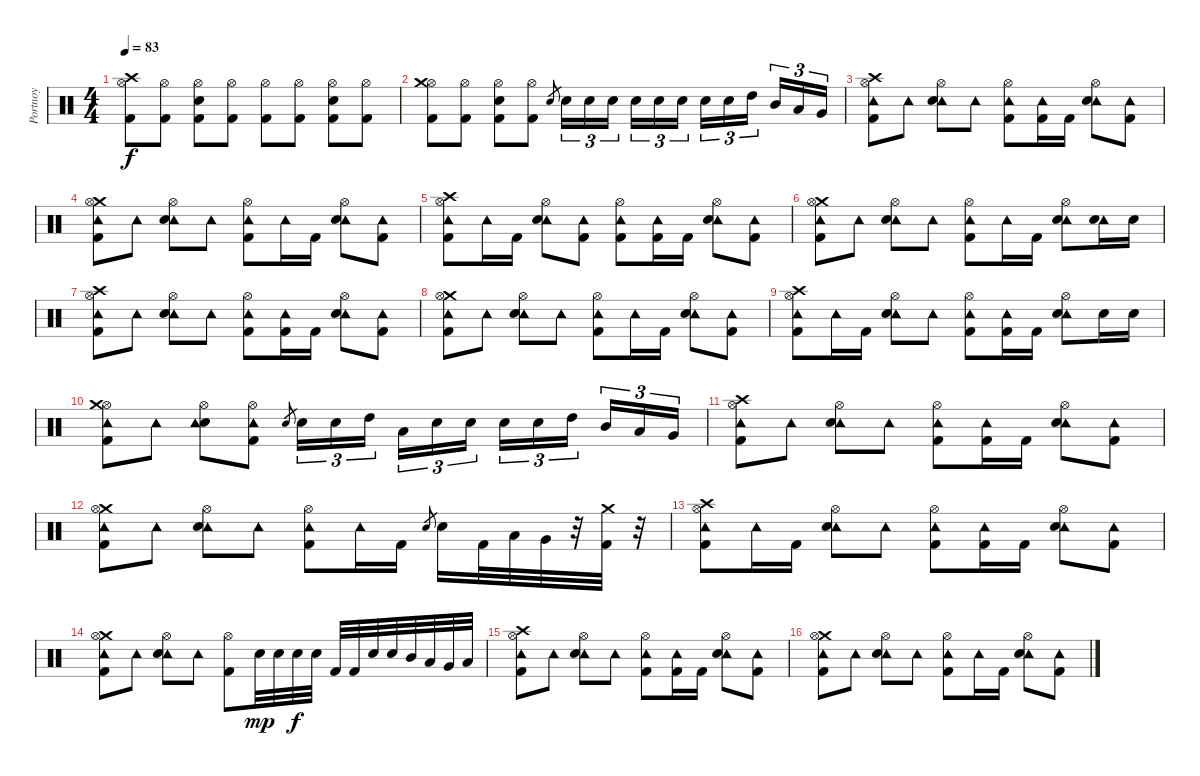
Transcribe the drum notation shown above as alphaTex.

\track ("Portnoy" "Portnoy") {instrument percussion}
\staff {score}
\articulation defaults
\ts (4 4)
\tempo 83
\clef neutral
\ks c
("Hi-Hat (open)" "Crash high (hit)" "Kick (hit) 2").8{dy f} ("Hi-Hat (open)" "Kick (hit) 2").8 ("Hi-Hat (open)" "Electric Snare (hit)" "Kick (hit) 2").8 ("Hi-Hat (open)" "Kick (hit) 2").8 ("Hi-Hat (open)" "Kick (hit) 2").8 ("Hi-Hat (open)" "Kick (hit) 2").8 ("Hi-Hat (open)" "Electric Snare (hit)" "Kick (hit) 2").8 ("Hi-Hat (open)" "Kick (hit) 2").8 |
("Hi-Hat (open)" "Crash medium (hit)" "Kick (hit) 2").8 ("Hi-Hat (open)" "Kick (hit) 2").8 ("Hi-Hat (open)" "Electric Snare (hit)" "Kick (hit) 2").8 ("Hi-Hat (open)" "Kick (hit) 2").8 "Electric Snare (hit)".8{gr} "Electric Snare (hit)".16{tu (3 2)} "Electric Snare (hit)".16{tu (3 2)} "Electric Snare (hit)".16{tu (3 2)} "Electric Snare (hit)".16{tu (3 2)} "Electric Snare (hit)".16{tu (3 2)} "Electric Snare (hit)".16{tu (3 2)} "Electric Snare (hit)".16{tu (3 2)} "Electric Snare (hit)".16{tu (3 2)} "High Tom (hit)".16{tu (3 2)} "Mid Tom (hit)".16{tu (3 2)} "Low Tom (hit)".16{tu (3 2)} "Very Low Tom (hit)".16{tu (3 2)} |
("Crash high (hit)" "Hi-Hat (open)" "Tambourine (hit)" "Kick (hit) 2").8 "Tambourine (hit)".8 ("Hi-Hat (open)" "Tambourine (hit)" "Electric Snare (hit)").8 "Tambourine (hit)".8 ("Hi-Hat (open)" "Tambourine (hit)" "Kick (hit) 2").8 ("Tambourine (hit)" "Kick (hit) 2").16 "Kick (hit) 2".16 ("Hi-Hat (open)" "Tambourine (hit)" "Electric Snare (hit)").8 ("Tambourine (hit)" "Kick (hit) 2").8 |
("Crash medium (hit)" "Hi-Hat (open)" "Tambourine (hit)" "Kick (hit) 2").8 "Tambourine (hit)".8 ("Hi-Hat (open)" "Tambourine (hit)" "Electric Snare (hit)").8 "Tambourine (hit)".8 ("Hi-Hat (open)" "Tambourine (hit)" "Kick (hit) 2").8 "Tambourine (hit)".16 "Kick (hit) 2".16 ("Hi-Hat (open)" "Tambourine (hit)" "Electric Snare (hit)").8 ("Tambourine (hit)" "Kick (hit) 2").8 |
("Crash high (hit)" "Hi-Hat (open)" "Tambourine (hit)" "Kick (hit) 2").8 "Tambourine (hit)".16 "Kick (hit) 2".16 ("Hi-Hat (open)" "Tambourine (hit)" "Electric Snare (hit)").8 ("Tambourine (hit)" "Kick (hit) 2").8 ("Hi-Hat (open)" "Tambourine (hit)" "Kick (hit) 2").8 ("Tambourine (hit)" "Kick (hit) 2").16 "Kick (hit) 2".16 ("Hi-Hat (open)" "Tambourine (hit)" "Electric Snare (hit)").8 ("Tambourine (hit)" "Kick (hit) 2").8 |
("Crash medium (hit)" "Hi-Hat (open)" "Tambourine (hit)" "Kick (hit) 2").8 "Tambourine (hit)".8 ("Hi-Hat (open)" "Tambourine (hit)" "Electric Snare (hit)").8 "Tambourine (hit)".8 ("Hi-Hat (open)" "Tambourine (hit)" "Kick (hit) 2").8 "Tambourine (hit)".16 "Kick (hit) 2".16 ("Hi-Hat (open)" "Tambourine (hit)" "Electric Snare (hit)").8 ("Tambourine (hit)" "Electric Snare (hit)").16 "Electric Snare (hit)".16 |
("Crash high (hit)" "Hi-Hat (open)" "Tambourine (hit)" "Kick (hit) 2").8 "Tambourine (hit)".8 ("Hi-Hat (open)" "Tambourine (hit)" "Electric Snare (hit)").8 "Tambourine (hit)".8 ("Hi-Hat (open)" "Tambourine (hit)" "Kick (hit) 2").8 ("Tambourine (hit)" "Kick (hit) 2").16 "Kick (hit) 2".16 ("Hi-Hat (open)" "Tambourine (hit)" "Electric Snare (hit)").8 ("Tambourine (hit)" "Kick (hit) 2").8 |
("Crash medium (hit)" "Hi-Hat (open)" "Tambourine (hit)" "Kick (hit) 2").8 "Tambourine (hit)".8 ("Hi-Hat (open)" "Tambourine (hit)" "Electric Snare (hit)").8 "Tambourine (hit)".8 ("Hi-Hat (open)" "Tambourine (hit)" "Kick (hit) 2").8 "Tambourine (hit)".16 "Kick (hit) 2".16 ("Hi-Hat (open)" "Tambourine (hit)" "Electric Snare (hit)").8 ("Tambourine (hit)" "Kick (hit) 2").8 |
("Crash high (hit)" "Hi-Hat (open)" "Tambourine (hit)" "Kick (hit) 2").8 "Tambourine (hit)".16 "Kick (hit) 2".16 ("Hi-Hat (open)" "Tambourine (hit)" "Electric Snare (hit)").8 "Tambourine (hit)".8 ("Hi-Hat (open)" "Tambourine (hit)" "Kick (hit) 2").8 ("Tambourine (hit)" "Kick (hit) 2").16 "Kick (hit) 2".16 ("Hi-Hat (open)" "Tambourine (hit)" "Electric Snare (hit)").8 "Electric Snare (hit)".16 "Electric Snare (hit)".16 |
("Hi-Hat (open)" "Crash medium (hit)" "Tambourine (hit)" "Kick (hit) 2").8 "Tambourine (hit)".8 ("Hi-Hat (open)" "Electric Snare (hit)" "Tambourine (hit)").8 ("Hi-Hat (open)" "Tambourine (hit)" "Kick (hit) 2").8 "Electric Snare (hit)".8{gr} "Electric Snare (hit)".16{tu (3 2)} "Electric Snare (hit)".16{tu (3 2)} "High Tom (hit)".16{tu (3 2)} "Low Tom (hit)".16{tu (3 2)} "Electric Snare (hit)".16{tu (3 2)} "Electric Snare (hit)".16{tu (3 2)} "Electric Snare (hit)".16{tu (3 2)} "Electric Snare (hit)".16{tu (3 2)} "High Tom (hit)".16{tu (3 2)} "Mid Tom (hit)".16{tu (3 2)} "Low Tom (hit)".16{tu (3 2)} "Very Low Tom (hit)".16{tu (3 2)} |
("Crash high (hit)" "Hi-Hat (open)" "Tambourine (hit)" "Kick (hit) 2").8 "Tambourine (hit)".8 ("Hi-Hat (open)" "Tambourine (hit)" "Electric Snare (hit)").8 "Tambourine (hit)".8 ("Hi-Hat (open)" "Tambourine (hit)" "Kick (hit) 2").8 ("Tambourine (hit)" "Kick (hit) 2").16 "Kick (hit) 2".16 ("Hi-Hat (open)" "Tambourine (hit)" "Electric Snare (hit)").8 ("Tambourine (hit)" "Kick (hit) 2").8 |
("Crash medium (hit)" "Hi-Hat (open)" "Tambourine (hit)" "Kick (hit) 2").8 "Tambourine (hit)".8 ("Hi-Hat (open)" "Tambourine (hit)" "Electric Snare (hit)").8 "Tambourine (hit)".8 ("Hi-Hat (open)" "Tambourine (hit)" "Kick (hit) 2").8 "Tambourine (hit)".16 "Kick (hit) 2".16 "Electric Snare (hit)".8{gr} "Electric Snare (hit)".16 "Kick (hit) 2".32 "Low Tom (hit)".32 "Very Low Tom (hit)".32 r.32 ("Crash medium (hit)" "Kick (hit) 2").32 r.32 |
("Crash high (hit)" "Hi-Hat (open)" "Tambourine (hit)" "Kick (hit) 2").8 "Tambourine (hit)".16 "Kick (hit) 2".16 ("Hi-Hat (open)" "Tambourine (hit)" "Electric Snare (hit)").8 "Tambourine (hit)".8 ("Hi-Hat (open)" "Tambourine (hit)" "Kick (hit) 2").8 ("Tambourine (hit)" "Kick (hit) 2").16 "Kick (hit) 2".16 ("Hi-Hat (open)" "Tambourine (hit)" "Electric Snare (hit)").8 ("Tambourine (hit)" "Kick (hit) 2").8 |
("Crash medium (hit)" "Hi-Hat (open)" "Tambourine (hit)" "Kick (hit) 2").8 "Tambourine (hit)".8 ("Hi-Hat (open)" "Tambourine (hit)" "Electric Snare (hit)").8 "Tambourine (hit)".8 ("Hi-Hat (open)" "Kick (hit) 2").8 "Electric Snare (hit)".32{dy mp} "Electric Snare (hit)".32 "Electric Snare (hit)".32{dy f} "Electric Snare (hit)".32 "Kick (hit) 2".32 "Kick (hit) 2".32 "Electric Snare (hit)".32 "Electric Snare (hit)".32 "Mid Tom (hit)".32 "Low Tom (hit)".32 "Very Low Tom (hit)".32 "Low Floor Tom (hit)".32 |
("Crash high (hit)" "Hi-Hat (open)" "Tambourine (hit)" "Kick (hit) 2").8 "Tambourine (hit)".8 ("Hi-Hat (open)" "Tambourine (hit)" "Electric Snare (hit)").8 "Tambourine (hit)".8 ("Hi-Hat (open)" "Tambourine (hit)" "Kick (hit) 2").8 ("Tambourine (hit)" "Kick (hit) 2").16 "Kick (hit) 2".16 ("Hi-Hat (open)" "Tambourine (hit)" "Electric Snare (hit)").8 ("Tambourine (hit)" "Kick (hit) 2").8 |
("Crash medium (hit)" "Hi-Hat (open)" "Tambourine (hit)" "Kick (hit) 2").8 "Tambourine (hit)".8 ("Hi-Hat (open)" "Tambourine (hit)" "Electric Snare (hit)").8 "Tambourine (hit)".8 ("Hi-Hat (open)" "Tambourine (hit)" "Kick (hit) 2").8 "Tambourine (hit)".16 "Kick (hit) 2".16 ("Hi-Hat (open)" "Tambourine (hit)" "Electric Snare (hit)").8 ("Tambourine (hit)" "Kick (hit) 2").8
